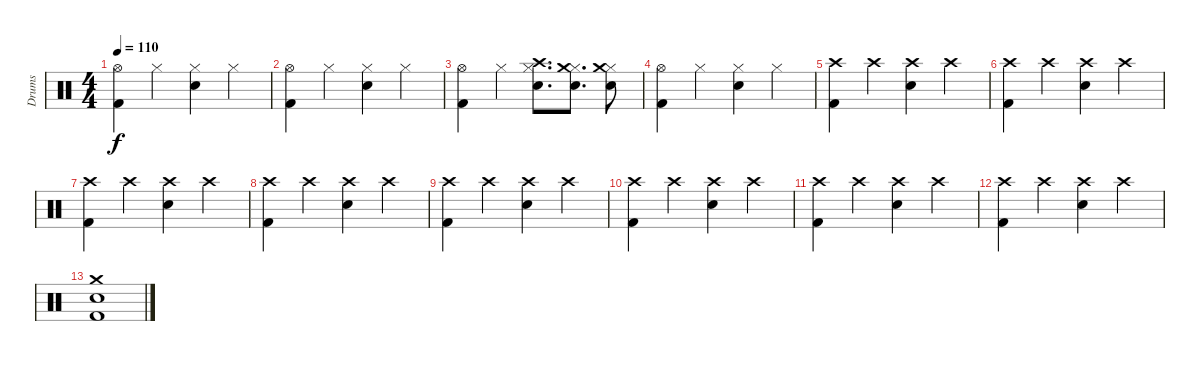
\track ("Drums" "Drums") {instrument percussion}
\staff {score}
\articulation defaults
\ts (4 4)
\tempo 110
\clef neutral
\ks c
("Kick (hit) 2" "Hi-Hat (open)").4{dy f} "Hi-Hat (closed)".4 ("Electric Snare (hit)" "Hi-Hat (closed)").4 "Hi-Hat (closed)".4 |
("Kick (hit) 2" "Hi-Hat (open)").4 "Hi-Hat (closed)".4 ("Electric Snare (hit)" "Hi-Hat (closed)").4 "Hi-Hat (closed)".4 |
("Kick (hit) 2" "Hi-Hat (open)").4 "Hi-Hat (closed)".4 ("Electric Snare (hit)" "Hi-Hat (closed)" "Crash high (hit)").8{d} ("Electric Snare (hit)" "Hi-Hat (closed)" "Crash medium (hit)").8{d} ("Electric Snare (hit)" "Hi-Hat (closed)" "Crash medium (hit)").8 |
("Kick (hit) 2" "Hi-Hat (open)").4 "Hi-Hat (closed)".4 ("Electric Snare (hit)" "Hi-Hat (closed)").4 "Hi-Hat (closed)".4 |
("Kick (hit) 2" "Crash high (hit)").4 "Crash high (hit)".4 ("Electric Snare (hit)" "Crash high (hit)").4 "Crash high (hit)".4 |
("Kick (hit) 2" "Crash high (hit)").4 "Crash high (hit)".4 ("Electric Snare (hit)" "Crash high (hit)").4 "Crash high (hit)".4 |
("Kick (hit) 2" "Crash high (hit)").4 "Crash high (hit)".4 ("Electric Snare (hit)" "Crash high (hit)").4 "Crash high (hit)".4 |
("Kick (hit) 2" "Crash high (hit)").4 "Crash high (hit)".4 ("Electric Snare (hit)" "Crash high (hit)").4 "Crash high (hit)".4 |
("Kick (hit) 2" "Crash high (hit)").4 "Crash high (hit)".4 ("Electric Snare (hit)" "Crash high (hit)").4 "Crash high (hit)".4 |
("Kick (hit) 2" "Crash high (hit)").4 "Crash high (hit)".4 ("Electric Snare (hit)" "Crash high (hit)").4 "Crash high (hit)".4 |
("Kick (hit) 2" "Crash high (hit)").4 "Crash high (hit)".4 ("Electric Snare (hit)" "Crash high (hit)").4 "Crash high (hit)".4 |
("Kick (hit) 2" "Crash high (hit)").4 "Crash high (hit)".4 ("Electric Snare (hit)" "Crash high (hit)").4 "Crash high (hit)".4 |
("Kick (hit) 2" "Electric Snare (hit)" "Crash medium (hit)").1
